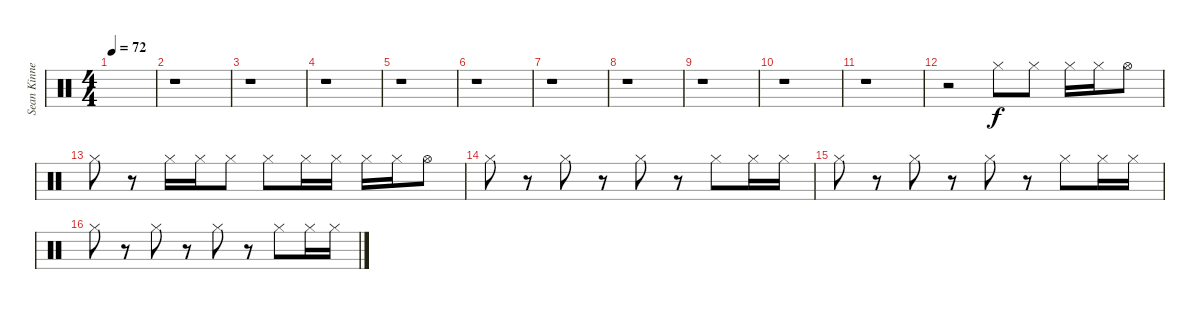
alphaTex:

\track ("Sean Kinney - Drums" "Sean Kinne") {instrument percussion}
\staff {score}
\articulation defaults
\ts (4 4)
\tempo 72
\clef neutral
\ks c
|
r.1 |
r.1 |
r.1 |
r.1 |
r.1 |
r.1 |
r.1 |
r.1 |
r.1 |
r.1 |
r.2 "Hi-Hat (closed)".8 "Hi-Hat (closed)".8 "Hi-Hat (closed)".16 "Hi-Hat (closed)".16 "Hi-Hat (open)".8 |
"Hi-Hat (closed)".8 r.8 "Hi-Hat (closed)".16 "Hi-Hat (closed)".16 "Hi-Hat (closed)".8 "Hi-Hat (closed)".8 "Hi-Hat (closed)".16 "Hi-Hat (closed)".16 "Hi-Hat (closed)".16 "Hi-Hat (closed)".16 "Hi-Hat (open)".8 |
"Hi-Hat (closed)".8 r.8 "Hi-Hat (closed)".8 r.8 "Hi-Hat (closed)".8 r.8 "Hi-Hat (closed)".8 "Hi-Hat (closed)".16 "Hi-Hat (closed)".16 |
"Hi-Hat (closed)".8 r.8 "Hi-Hat (closed)".8 r.8 "Hi-Hat (closed)".8 r.8 "Hi-Hat (closed)".8 "Hi-Hat (closed)".16 "Hi-Hat (closed)".16 |
"Hi-Hat (closed)".8 r.8 "Hi-Hat (closed)".8 r.8 "Hi-Hat (closed)".8 r.8 "Hi-Hat (closed)".8 "Hi-Hat (closed)".16 "Hi-Hat (closed)".16
